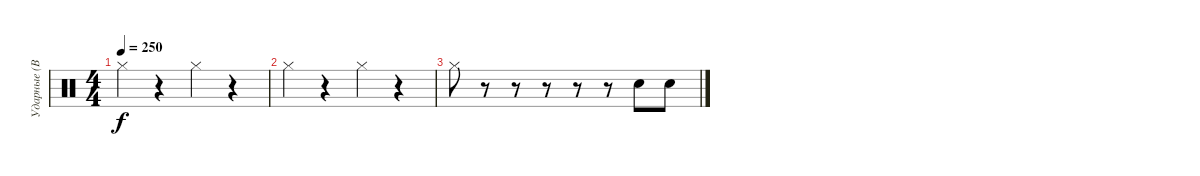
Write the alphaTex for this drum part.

\track ("Ударные (Вася)" "Ударные (В") {instrument percussion}
\staff {score}
\articulation defaults
\ts (4 4)
\tempo 250
\clef neutral
\ks c "Hi-Hat (closed)".4{dy f}
r.4 "Hi-Hat (closed)".4 r.4 |
"Hi-Hat (closed)".4 r.4 "Hi-Hat (closed)".4 r.4 |
"Hi-Hat (closed)".8 r.8 r.8 r.8 r.8 r.8 "Electric Snare (hit)".8 "Snare (hit) 2".8
